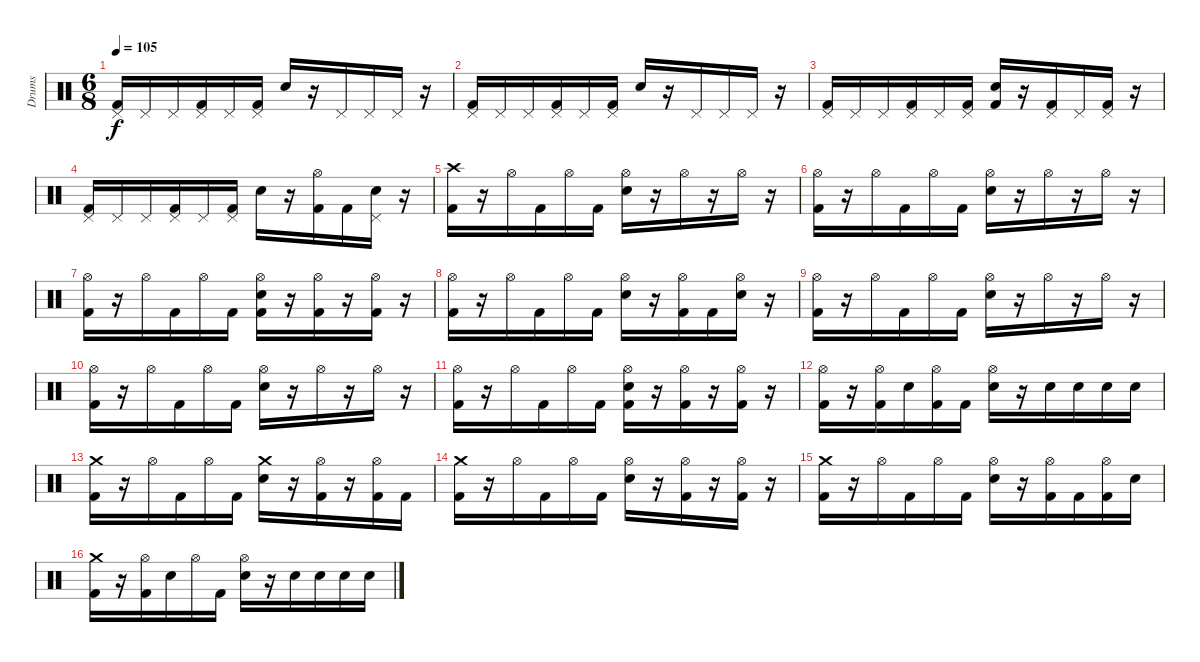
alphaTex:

\track ("Drums" "Drums") {instrument percussion}
\staff {score}
\articulation defaults
\ts (6 8)
\tempo 105
\clef neutral
\ks c
("Pedal Hi-Hat (hit)" "Kick (hit) 2").16{dy f} "Pedal Hi-Hat (hit)".16 "Pedal Hi-Hat (hit)".16 ("Pedal Hi-Hat (hit)" "Kick (hit) 2").16 "Pedal Hi-Hat (hit)".16 ("Pedal Hi-Hat (hit)" "Kick (hit) 2").16 "Electric Snare (hit)".16 r.16 "Pedal Hi-Hat (hit)".16 "Pedal Hi-Hat (hit)".16 "Pedal Hi-Hat (hit)".16 r.16 |
("Pedal Hi-Hat (hit)" "Kick (hit) 2").16 "Pedal Hi-Hat (hit)".16 "Pedal Hi-Hat (hit)".16 ("Pedal Hi-Hat (hit)" "Kick (hit) 2").16 "Pedal Hi-Hat (hit)".16 ("Pedal Hi-Hat (hit)" "Kick (hit) 2").16 "Electric Snare (hit)".16 r.16 "Pedal Hi-Hat (hit)".16 "Pedal Hi-Hat (hit)".16 "Pedal Hi-Hat (hit)".16 r.16 |
("Pedal Hi-Hat (hit)" "Kick (hit) 2").16 "Pedal Hi-Hat (hit)".16 "Pedal Hi-Hat (hit)".16 ("Pedal Hi-Hat (hit)" "Kick (hit) 2").16 "Pedal Hi-Hat (hit)".16 ("Pedal Hi-Hat (hit)" "Kick (hit) 2").16 ("Electric Snare (hit)" "Kick (hit) 2").16 r.16 ("Pedal Hi-Hat (hit)" "Kick (hit) 2").16 "Pedal Hi-Hat (hit)".16 ("Pedal Hi-Hat (hit)" "Kick (hit) 2").16 r.16 |
("Pedal Hi-Hat (hit)" "Kick (hit) 2").16 "Pedal Hi-Hat (hit)".16 "Pedal Hi-Hat (hit)".16 ("Pedal Hi-Hat (hit)" "Kick (hit) 2").16 "Pedal Hi-Hat (hit)".16 ("Pedal Hi-Hat (hit)" "Kick (hit) 2").16 "Electric Snare (hit)".16 r.16 ("Hi-Hat (open)" "Kick (hit) 2").16 "Kick (hit) 2".16 ("Pedal Hi-Hat (hit)" "Electric Snare (hit)").16 r.16 |
("Crash high (hit)" "Kick (hit) 2").16 r.16 "Hi-Hat (open)".16 "Kick (hit) 2".16 "Hi-Hat (open)".16 "Kick (hit) 2".16 ("Hi-Hat (open)" "Electric Snare (hit)").16 r.16 "Hi-Hat (open)".16 r.16 "Hi-Hat (open)".16 r.16 |
("Hi-Hat (open)" "Kick (hit) 2").16 r.16 "Hi-Hat (open)".16 "Kick (hit) 2".16 "Hi-Hat (open)".16 "Kick (hit) 2".16 ("Hi-Hat (open)" "Electric Snare (hit)").16 r.16 "Hi-Hat (open)".16 r.16 "Hi-Hat (open)".16 r.16 |
("Hi-Hat (open)" "Kick (hit) 2").16 r.16 "Hi-Hat (open)".16 "Kick (hit) 2".16 "Hi-Hat (open)".16 "Kick (hit) 2".16 ("Hi-Hat (open)" "Electric Snare (hit)" "Kick (hit) 2").16 r.16 ("Hi-Hat (open)" "Kick (hit) 2").16 r.16 ("Hi-Hat (open)" "Kick (hit) 2").16 r.16 |
("Hi-Hat (open)" "Kick (hit) 2").16 r.16 "Hi-Hat (open)".16 "Kick (hit) 2".16 "Hi-Hat (open)".16 "Kick (hit) 2".16 ("Hi-Hat (open)" "Electric Snare (hit)").16 r.16 ("Hi-Hat (open)" "Kick (hit) 2").16 "Kick (hit) 2".16 ("Hi-Hat (open)" "Electric Snare (hit)").16 r.16 |
("Hi-Hat (open)" "Kick (hit) 2").16 r.16 "Hi-Hat (open)".16 "Kick (hit) 2".16 "Hi-Hat (open)".16 "Kick (hit) 2".16 ("Hi-Hat (open)" "Electric Snare (hit)").16 r.16 "Hi-Hat (open)".16 r.16 "Hi-Hat (open)".16 r.16 |
("Hi-Hat (open)" "Kick (hit) 2").16 r.16 "Hi-Hat (open)".16 "Kick (hit) 2".16 "Hi-Hat (open)".16 "Kick (hit) 2".16 ("Hi-Hat (open)" "Electric Snare (hit)").16 r.16 "Hi-Hat (open)".16 r.16 "Hi-Hat (open)".16 r.16 |
("Hi-Hat (open)" "Kick (hit) 2").16 r.16 "Hi-Hat (open)".16 "Kick (hit) 2".16 "Hi-Hat (open)".16 "Kick (hit) 2".16 ("Hi-Hat (open)" "Electric Snare (hit)" "Kick (hit) 2").16 r.16 ("Hi-Hat (open)" "Kick (hit) 2").16 r.16 ("Hi-Hat (open)" "Kick (hit) 2").16 r.16 |
("Hi-Hat (open)" "Kick (hit) 2").16 r.16 ("Hi-Hat (open)" "Kick (hit) 2").16 "Electric Snare (hit)".16 ("Hi-Hat (open)" "Kick (hit) 2").16 "Kick (hit) 2".16 ("Hi-Hat (open)" "Electric Snare (hit)").16 r.16 "Electric Snare (hit)".16 "Electric Snare (hit)".16 "Electric Snare (hit)".16 "Electric Snare (hit)".16 |
("Crash medium (hit)" "Kick (hit) 2").16 r.16 "Hi-Hat (open)".16 "Kick (hit) 2".16 "Hi-Hat (open)".16 "Kick (hit) 2".16 ("Crash medium (hit)" "Electric Snare (hit)").16 r.16 ("Hi-Hat (open)" "Kick (hit) 2").16 r.16 ("Hi-Hat (open)" "Kick (hit) 2").16 "Kick (hit) 2".16 |
("Crash medium (hit)" "Kick (hit) 2").16 r.16 "Hi-Hat (open)".16 "Kick (hit) 2".16 "Hi-Hat (open)".16 "Kick (hit) 2".16 ("Hi-Hat (open)" "Electric Snare (hit)").16 r.16 ("Hi-Hat (open)" "Kick (hit) 2").16 r.16 ("Hi-Hat (open)" "Kick (hit) 2").16 r.16 |
("Crash medium (hit)" "Kick (hit) 2").16 r.16 "Hi-Hat (open)".16 "Kick (hit) 2".16 "Hi-Hat (open)".16 "Kick (hit) 2".16 ("Hi-Hat (open)" "Electric Snare (hit)").16 r.16 ("Hi-Hat (open)" "Kick (hit) 2").16 "Kick (hit) 2".16 ("Hi-Hat (open)" "Kick (hit) 2").16 "Electric Snare (hit)".16 |
("Crash medium (hit)" "Kick (hit) 2").16 r.16 ("Hi-Hat (open)" "Kick (hit) 2").16 "Electric Snare (hit)".16 "Hi-Hat (open)".16 "Kick (hit) 2".16 ("Hi-Hat (open)" "Electric Snare (hit)").16 r.16 "Electric Snare (hit)".16 "Electric Snare (hit)".16 "Electric Snare (hit)".16 "Electric Snare (hit)".16
